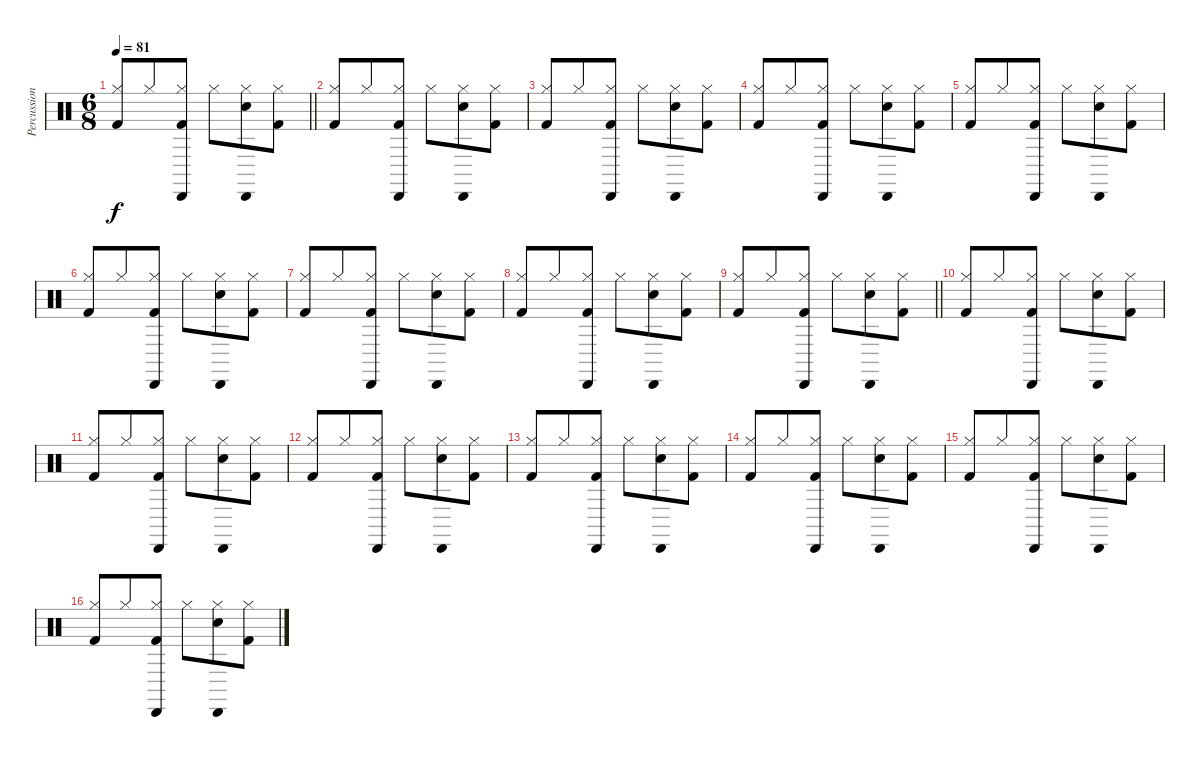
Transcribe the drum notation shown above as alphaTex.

\track ("Percussion" "Percussion") {instrument percussion}
\staff {score}
\articulation defaults
\ts (6 8)
\tempo 81
\clef neutral
\barLineRight lightlight
\ks c
("Hi-Hat (closed)" "Kick (hit) 2").8{dy f} "Hi-Hat (closed)".8 ("Hi-Hat (closed)" "Kick (hit) 2" "Cabasa (hit)").8 "Hi-Hat (closed)".8 ("Hi-Hat (closed)" "Snare (hit) 2" "Cabasa (hit)").8 ("Hi-Hat (closed)" "Kick (hit) 2").8 |
("Hi-Hat (closed)" "Kick (hit) 2").8 "Hi-Hat (closed)".8 ("Hi-Hat (closed)" "Kick (hit) 2" "Cabasa (hit)").8 "Hi-Hat (closed)".8 ("Hi-Hat (closed)" "Snare (hit) 2" "Cabasa (hit)").8 ("Hi-Hat (closed)" "Kick (hit) 2").8 |
("Hi-Hat (closed)" "Kick (hit) 2").8 "Hi-Hat (closed)".8 ("Hi-Hat (closed)" "Kick (hit) 2" "Cabasa (hit)").8 "Hi-Hat (closed)".8 ("Hi-Hat (closed)" "Snare (hit) 2" "Cabasa (hit)").8 ("Hi-Hat (closed)" "Kick (hit) 2").8 |
("Hi-Hat (closed)" "Kick (hit) 2").8 "Hi-Hat (closed)".8 ("Hi-Hat (closed)" "Kick (hit) 2" "Cabasa (hit)").8 "Hi-Hat (closed)".8 ("Hi-Hat (closed)" "Snare (hit) 2" "Cabasa (hit)").8 ("Hi-Hat (closed)" "Kick (hit) 2").8 |
("Hi-Hat (closed)" "Kick (hit) 2").8 "Hi-Hat (closed)".8 ("Hi-Hat (closed)" "Kick (hit) 2" "Cabasa (hit)").8 "Hi-Hat (closed)".8 ("Hi-Hat (closed)" "Snare (hit) 2" "Cabasa (hit)").8 ("Hi-Hat (closed)" "Kick (hit) 2").8 |
("Hi-Hat (closed)" "Kick (hit) 2").8 "Hi-Hat (closed)".8 ("Hi-Hat (closed)" "Kick (hit) 2" "Cabasa (hit)").8 "Hi-Hat (closed)".8 ("Hi-Hat (closed)" "Snare (hit) 2" "Cabasa (hit)").8 ("Hi-Hat (closed)" "Kick (hit) 2").8 |
("Hi-Hat (closed)" "Kick (hit) 2").8 "Hi-Hat (closed)".8 ("Hi-Hat (closed)" "Kick (hit) 2" "Cabasa (hit)").8 "Hi-Hat (closed)".8 ("Hi-Hat (closed)" "Snare (hit) 2" "Cabasa (hit)").8 ("Hi-Hat (closed)" "Kick (hit) 2").8 |
("Hi-Hat (closed)" "Kick (hit) 2").8 "Hi-Hat (closed)".8 ("Hi-Hat (closed)" "Kick (hit) 2" "Cabasa (hit)").8 "Hi-Hat (closed)".8 ("Hi-Hat (closed)" "Snare (hit) 2" "Cabasa (hit)").8 ("Hi-Hat (closed)" "Kick (hit) 2").8 |
\barLineRight lightlight
("Hi-Hat (closed)" "Kick (hit) 2").8 "Hi-Hat (closed)".8 ("Hi-Hat (closed)" "Kick (hit) 2" "Cabasa (hit)").8 "Hi-Hat (closed)".8 ("Hi-Hat (closed)" "Snare (hit) 2" "Cabasa (hit)").8 ("Hi-Hat (closed)" "Kick (hit) 2").8 |
("Hi-Hat (closed)" "Kick (hit) 2").8 "Hi-Hat (closed)".8 ("Hi-Hat (closed)" "Kick (hit) 2" "Cabasa (hit)").8 "Hi-Hat (closed)".8 ("Hi-Hat (closed)" "Snare (hit) 2" "Cabasa (hit)").8 ("Hi-Hat (closed)" "Kick (hit) 2").8 |
("Hi-Hat (closed)" "Kick (hit) 2").8 "Hi-Hat (closed)".8 ("Hi-Hat (closed)" "Kick (hit) 2" "Cabasa (hit)").8 "Hi-Hat (closed)".8 ("Hi-Hat (closed)" "Snare (hit) 2" "Cabasa (hit)").8 ("Hi-Hat (closed)" "Kick (hit) 2").8 |
("Hi-Hat (closed)" "Kick (hit) 2").8 "Hi-Hat (closed)".8 ("Hi-Hat (closed)" "Kick (hit) 2" "Cabasa (hit)").8 "Hi-Hat (closed)".8 ("Hi-Hat (closed)" "Snare (hit) 2" "Cabasa (hit)").8 ("Hi-Hat (closed)" "Kick (hit) 2").8 |
("Hi-Hat (closed)" "Kick (hit) 2").8 "Hi-Hat (closed)".8 ("Hi-Hat (closed)" "Kick (hit) 2" "Cabasa (hit)").8 "Hi-Hat (closed)".8 ("Hi-Hat (closed)" "Snare (hit) 2" "Cabasa (hit)").8 ("Hi-Hat (closed)" "Kick (hit) 2").8 |
("Hi-Hat (closed)" "Kick (hit) 2").8 "Hi-Hat (closed)".8 ("Hi-Hat (closed)" "Kick (hit) 2" "Cabasa (hit)").8 "Hi-Hat (closed)".8 ("Hi-Hat (closed)" "Snare (hit) 2" "Cabasa (hit)").8 ("Hi-Hat (closed)" "Kick (hit) 2").8 |
("Hi-Hat (closed)" "Kick (hit) 2").8 "Hi-Hat (closed)".8 ("Hi-Hat (closed)" "Kick (hit) 2" "Cabasa (hit)").8 "Hi-Hat (closed)".8 ("Hi-Hat (closed)" "Snare (hit) 2" "Cabasa (hit)").8 ("Hi-Hat (closed)" "Kick (hit) 2").8 |
("Hi-Hat (closed)" "Kick (hit) 2").8 "Hi-Hat (closed)".8 ("Hi-Hat (closed)" "Kick (hit) 2" "Cabasa (hit)").8 "Hi-Hat (closed)".8 ("Hi-Hat (closed)" "Snare (hit) 2" "Cabasa (hit)").8 ("Hi-Hat (closed)" "Kick (hit) 2").8
